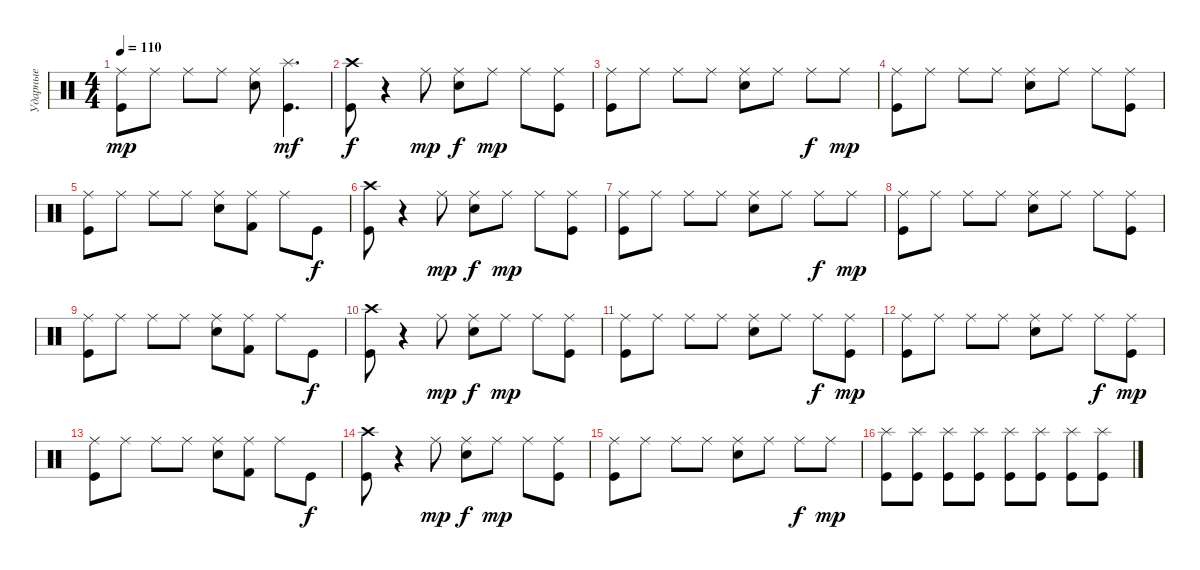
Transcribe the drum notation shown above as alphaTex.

\track ("Ударные" "Ударные") {instrument percussion}
\staff {score}
\articulation defaults
\ts (4 4)
\tempo 110
\clef neutral
\ks c
("Ride (middle)" "Kick (hit)").8{dy mp} "Ride (middle)".8 "Ride (middle)".8 "Ride (middle)".8 ("Ride (middle)" "Snare (hit) 2").8 ("Splash (hit)" "Kick (hit)").4{d dy mf} |
("Crash high (hit)" "Kick (hit)").8{dy f} r.4 "Ride (middle)".8{dy mp} ("Ride (middle)" "Snare (hit) 2").8{dy f} "Ride (middle)".8{dy mp} "Ride (middle)".8 ("Ride (middle)" "Kick (hit)").8 |
("Ride (middle)" "Kick (hit)").8 "Ride (middle)".8 "Ride (middle)".8 "Ride (middle)".8 ("Ride (middle)" "Snare (hit) 2").8 "Ride (middle)".8 "Ride (middle)".8{dy f} "Ride (middle)".8{dy mp} |
("Ride (middle)" "Kick (hit)").8 "Ride (middle)".8 "Ride (middle)".8 "Ride (middle)".8 ("Ride (middle)" "Snare (hit) 2").8 "Ride (middle)".8 "Ride (middle)".8 ("Ride (middle)" "Kick (hit)").8 |
("Ride (middle)" "Kick (hit)").8 "Ride (middle)".8 "Ride (middle)".8 "Ride (middle)".8 ("Ride (middle)" "Snare (hit) 2").8 ("Ride (middle)" "Kick (hit) 2").8 "Ride (middle)".8 "Kick (hit)".8{dy f} |
("Crash high (hit)" "Kick (hit)").8 r.4 "Ride (middle)".8{dy mp} ("Ride (middle)" "Snare (hit) 2").8{dy f} "Ride (middle)".8{dy mp} "Ride (middle)".8 ("Ride (middle)" "Kick (hit)").8 |
("Ride (middle)" "Kick (hit)").8 "Ride (middle)".8 "Ride (middle)".8 "Ride (middle)".8 ("Ride (middle)" "Snare (hit) 2").8 "Ride (middle)".8 "Ride (middle)".8{dy f} "Ride (middle)".8{dy mp} |
("Ride (middle)" "Kick (hit)").8 "Ride (middle)".8 "Ride (middle)".8 "Ride (middle)".8 ("Ride (middle)" "Snare (hit) 2").8 "Ride (middle)".8 "Ride (middle)".8 ("Ride (middle)" "Kick (hit)").8 |
("Ride (middle)" "Kick (hit)").8 "Ride (middle)".8 "Ride (middle)".8 "Ride (middle)".8 ("Ride (middle)" "Snare (hit) 2").8 ("Ride (middle)" "Kick (hit) 2").8 "Ride (middle)".8 "Kick (hit)".8{dy f} |
("Crash high (hit)" "Kick (hit)").8 r.4 "Ride (middle)".8{dy mp} ("Ride (middle)" "Snare (hit) 2").8{dy f} "Ride (middle)".8{dy mp} "Ride (middle)".8 ("Ride (middle)" "Kick (hit)").8 |
("Ride (middle)" "Kick (hit)").8 "Ride (middle)".8 "Ride (middle)".8 "Ride (middle)".8 ("Ride (middle)" "Snare (hit) 2").8 "Ride (middle)".8 "Ride (middle)".8{dy f} ("Ride (middle)" "Kick (hit)").8{dy mp} |
("Ride (middle)" "Kick (hit)").8 "Ride (middle)".8 "Ride (middle)".8 "Ride (middle)".8 ("Ride (middle)" "Snare (hit) 2").8 "Ride (middle)".8 "Ride (middle)".8{dy f} ("Ride (middle)" "Kick (hit)").8{dy mp} |
("Ride (middle)" "Kick (hit)").8 "Ride (middle)".8 "Ride (middle)".8 "Ride (middle)".8 ("Ride (middle)" "Snare (hit) 2").8 ("Ride (middle)" "Kick (hit) 2").8 "Ride (middle)".8 "Kick (hit)".8{dy f} |
("Crash high (hit)" "Kick (hit)").8 r.4 "Ride (middle)".8{dy mp} ("Ride (middle)" "Snare (hit) 2").8{dy f} "Ride (middle)".8{dy mp} "Ride (middle)".8 ("Ride (middle)" "Kick (hit)").8 |
("Ride (middle)" "Kick (hit)").8 "Ride (middle)".8 "Ride (middle)".8 "Ride (middle)".8 ("Ride (middle)" "Snare (hit) 2").8 "Ride (middle)".8 "Ride (middle)".8{dy f} "Ride (middle)".8{dy mp} |
("Splash (hit)" "Kick (hit)").8 ("Splash (hit)" "Kick (hit)").8 ("Splash (hit)" "Kick (hit)").8 ("Splash (hit)" "Kick (hit)").8 ("Splash (hit)" "Kick (hit)").8 ("Splash (hit)" "Kick (hit)").8 ("Splash (hit)" "Kick (hit)").8 ("Splash (hit)" "Kick (hit)").8
